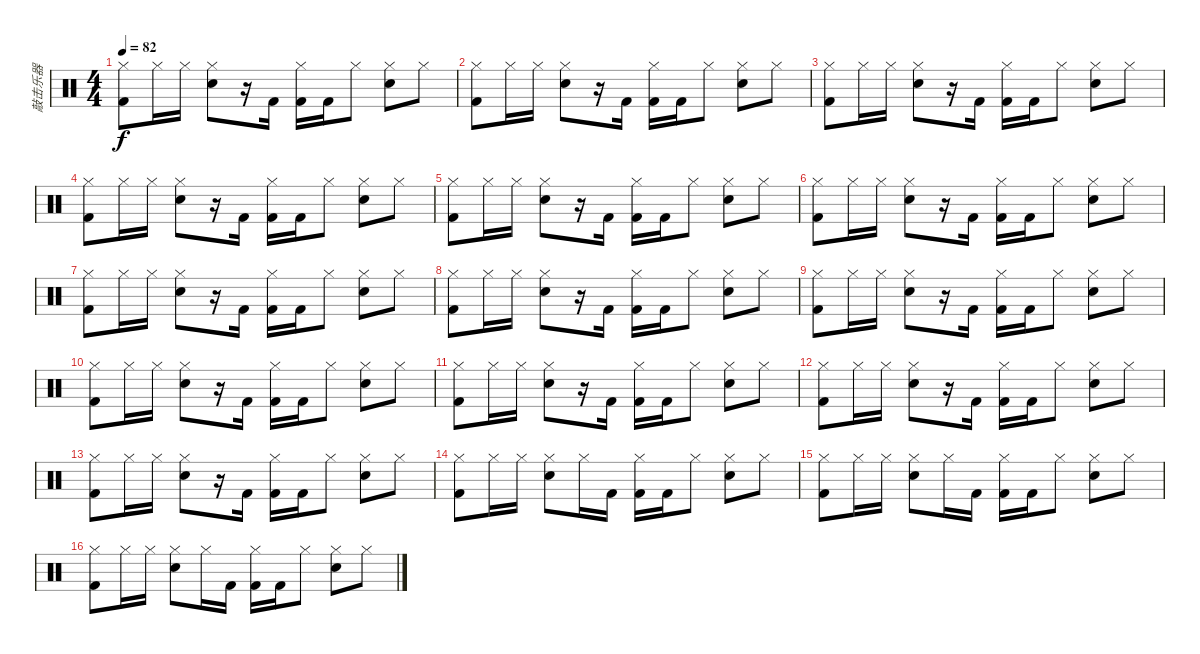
\track ("敲击乐器" "敲击乐器") {instrument percussion}
\staff {score}
\articulation defaults
\ts (4 4)
\tempo 82
\clef neutral
\ks c
("Hi-Hat (closed)" "Kick (hit) 2").8{dy f} "Hi-Hat (closed)".16 "Hi-Hat (closed)".16 ("Hi-Hat (closed)" "Snare (hit) 2").8 r.16 "Kick (hit) 2".16 ("Hi-Hat (closed)" "Kick (hit) 2").16 "Kick (hit) 2".16 "Hi-Hat (closed)".8 ("Hi-Hat (closed)" "Snare (hit) 2").8 "Hi-Hat (closed)".8 |
("Hi-Hat (closed)" "Kick (hit) 2").8 "Hi-Hat (closed)".16 "Hi-Hat (closed)".16 ("Hi-Hat (closed)" "Snare (hit) 2").8 r.16 "Kick (hit) 2".16 ("Hi-Hat (closed)" "Kick (hit) 2").16 "Kick (hit) 2".16 "Hi-Hat (closed)".8 ("Hi-Hat (closed)" "Snare (hit) 2").8 "Hi-Hat (closed)".8 |
("Hi-Hat (closed)" "Kick (hit) 2").8 "Hi-Hat (closed)".16 "Hi-Hat (closed)".16 ("Hi-Hat (closed)" "Snare (hit) 2").8 r.16 "Kick (hit) 2".16 ("Hi-Hat (closed)" "Kick (hit) 2").16 "Kick (hit) 2".16 "Hi-Hat (closed)".8 ("Hi-Hat (closed)" "Snare (hit) 2").8 "Hi-Hat (closed)".8 |
("Hi-Hat (closed)" "Kick (hit) 2").8 "Hi-Hat (closed)".16 "Hi-Hat (closed)".16 ("Hi-Hat (closed)" "Snare (hit) 2").8 r.16 "Kick (hit) 2".16 ("Hi-Hat (closed)" "Kick (hit) 2").16 "Kick (hit) 2".16 "Hi-Hat (closed)".8 ("Hi-Hat (closed)" "Snare (hit) 2").8 "Hi-Hat (closed)".8 |
("Hi-Hat (closed)" "Kick (hit) 2").8 "Hi-Hat (closed)".16 "Hi-Hat (closed)".16 ("Hi-Hat (closed)" "Snare (hit) 2").8 r.16 "Kick (hit) 2".16 ("Hi-Hat (closed)" "Kick (hit) 2").16 "Kick (hit) 2".16 "Hi-Hat (closed)".8 ("Hi-Hat (closed)" "Snare (hit) 2").8 "Hi-Hat (closed)".8 |
("Hi-Hat (closed)" "Kick (hit) 2").8 "Hi-Hat (closed)".16 "Hi-Hat (closed)".16 ("Hi-Hat (closed)" "Snare (hit) 2").8 r.16 "Kick (hit) 2".16 ("Hi-Hat (closed)" "Kick (hit) 2").16 "Kick (hit) 2".16 "Hi-Hat (closed)".8 ("Hi-Hat (closed)" "Snare (hit) 2").8 "Hi-Hat (closed)".8 |
("Hi-Hat (closed)" "Kick (hit) 2").8 "Hi-Hat (closed)".16 "Hi-Hat (closed)".16 ("Hi-Hat (closed)" "Snare (hit) 2").8 r.16 "Kick (hit) 2".16 ("Hi-Hat (closed)" "Kick (hit) 2").16 "Kick (hit) 2".16 "Hi-Hat (closed)".8 ("Hi-Hat (closed)" "Snare (hit) 2").8 "Hi-Hat (closed)".8 |
("Hi-Hat (closed)" "Kick (hit) 2").8 "Hi-Hat (closed)".16 "Hi-Hat (closed)".16 ("Hi-Hat (closed)" "Snare (hit) 2").8 r.16 "Kick (hit) 2".16 ("Hi-Hat (closed)" "Kick (hit) 2").16 "Kick (hit) 2".16 "Hi-Hat (closed)".8 ("Hi-Hat (closed)" "Snare (hit) 2").8 "Hi-Hat (closed)".8 |
("Hi-Hat (closed)" "Kick (hit) 2").8 "Hi-Hat (closed)".16 "Hi-Hat (closed)".16 ("Hi-Hat (closed)" "Snare (hit) 2").8 r.16 "Kick (hit) 2".16 ("Hi-Hat (closed)" "Kick (hit) 2").16 "Kick (hit) 2".16 "Hi-Hat (closed)".8 ("Hi-Hat (closed)" "Snare (hit) 2").8 "Hi-Hat (closed)".8 |
("Hi-Hat (closed)" "Kick (hit) 2").8 "Hi-Hat (closed)".16 "Hi-Hat (closed)".16 ("Hi-Hat (closed)" "Snare (hit) 2").8 r.16 "Kick (hit) 2".16 ("Hi-Hat (closed)" "Kick (hit) 2").16 "Kick (hit) 2".16 "Hi-Hat (closed)".8 ("Hi-Hat (closed)" "Snare (hit) 2").8 "Hi-Hat (closed)".8 |
("Hi-Hat (closed)" "Kick (hit) 2").8 "Hi-Hat (closed)".16 "Hi-Hat (closed)".16 ("Hi-Hat (closed)" "Snare (hit) 2").8 r.16 "Kick (hit) 2".16 ("Hi-Hat (closed)" "Kick (hit) 2").16 "Kick (hit) 2".16 "Hi-Hat (closed)".8 ("Hi-Hat (closed)" "Snare (hit) 2").8 "Hi-Hat (closed)".8 |
("Hi-Hat (closed)" "Kick (hit) 2").8 "Hi-Hat (closed)".16 "Hi-Hat (closed)".16 ("Hi-Hat (closed)" "Snare (hit) 2").8 r.16 "Kick (hit) 2".16 ("Hi-Hat (closed)" "Kick (hit) 2").16 "Kick (hit) 2".16 "Hi-Hat (closed)".8 ("Hi-Hat (closed)" "Snare (hit) 2").8 "Hi-Hat (closed)".8 |
("Hi-Hat (closed)" "Kick (hit) 2").8 "Hi-Hat (closed)".16 "Hi-Hat (closed)".16 ("Hi-Hat (closed)" "Snare (hit) 2").8 r.16 "Kick (hit) 2".16 ("Hi-Hat (closed)" "Kick (hit) 2").16 "Kick (hit) 2".16 "Hi-Hat (closed)".8 ("Hi-Hat (closed)" "Snare (hit) 2").8 "Hi-Hat (closed)".8 |
("Hi-Hat (closed)" "Kick (hit) 2").8 "Hi-Hat (closed)".16 "Hi-Hat (closed)".16 ("Hi-Hat (closed)" "Snare (hit) 2").8 "Hi-Hat (closed)".16 "Kick (hit) 2".16 ("Hi-Hat (closed)" "Kick (hit) 2").16 "Kick (hit) 2".16 "Hi-Hat (closed)".8 ("Hi-Hat (closed)" "Snare (hit) 2").8 "Hi-Hat (closed)".8 |
("Hi-Hat (closed)" "Kick (hit) 2").8 "Hi-Hat (closed)".16 "Hi-Hat (closed)".16 ("Hi-Hat (closed)" "Snare (hit) 2").8 "Hi-Hat (closed)".16 "Kick (hit) 2".16 ("Hi-Hat (closed)" "Kick (hit) 2").16 "Kick (hit) 2".16 "Hi-Hat (closed)".8 ("Hi-Hat (closed)" "Snare (hit) 2").8 "Hi-Hat (closed)".8 |
("Hi-Hat (closed)" "Kick (hit) 2").8 "Hi-Hat (closed)".16 "Hi-Hat (closed)".16 ("Hi-Hat (closed)" "Snare (hit) 2").8 "Hi-Hat (closed)".16 "Kick (hit) 2".16 ("Hi-Hat (closed)" "Kick (hit) 2").16 "Kick (hit) 2".16 "Hi-Hat (closed)".8 ("Hi-Hat (closed)" "Snare (hit) 2").8 "Hi-Hat (closed)".8
